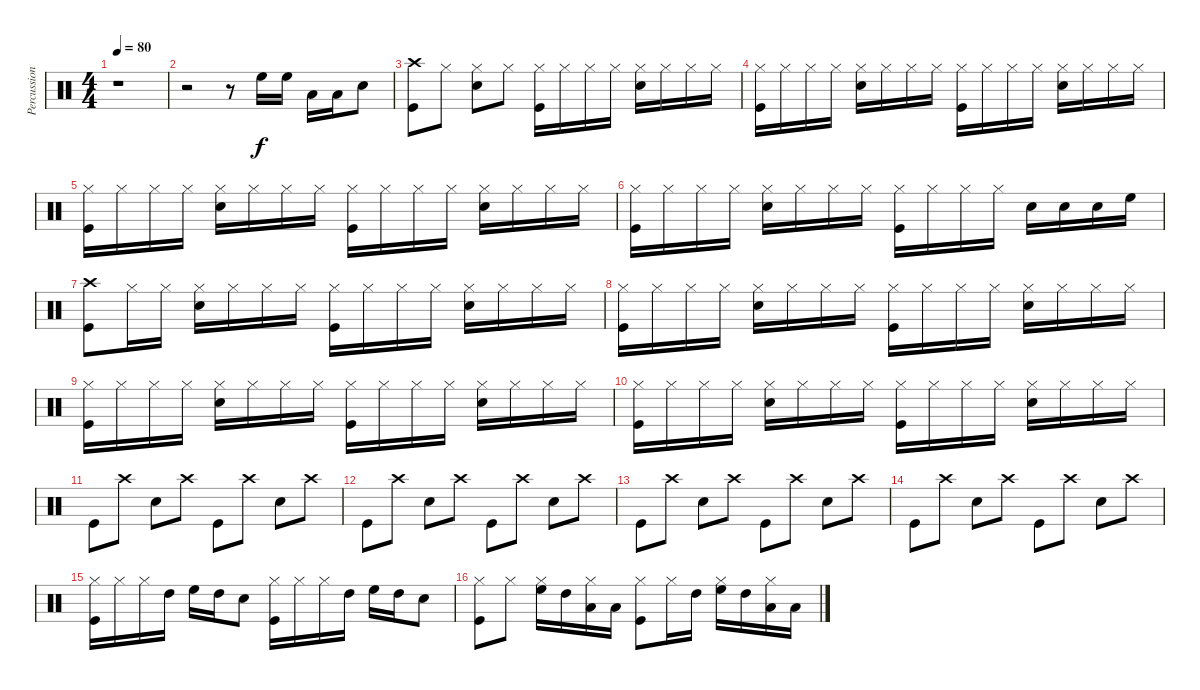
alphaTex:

\track ("Percussion" "Percussion") {instrument percussion}
\staff {score}
\articulation defaults
\ts (4 4)
\tempo 80
\clef neutral
\ks c
r.1{dy f} |
r.2 r.8 "High Floor Tom (hit)".16 "High Floor Tom (hit)".16 "Low Tom (hit)".16 "Low Tom (hit)".16 "Snare (hit) 2".8 |
("Crash high (hit)" "Kick (hit)").8 "Hi-Hat (closed)".8 ("Hi-Hat (closed)" "Snare (hit) 2").8 "Hi-Hat (closed)".8 ("Hi-Hat (closed)" "Kick (hit)").16 "Hi-Hat (closed)".16 "Hi-Hat (closed)".16 "Hi-Hat (closed)".16 ("Hi-Hat (closed)" "Snare (hit) 2").16 "Hi-Hat (closed)".16 "Hi-Hat (closed)".16 "Hi-Hat (closed)".16 |
("Hi-Hat (closed)" "Kick (hit)").16 "Hi-Hat (closed)".16 "Hi-Hat (closed)".16 "Hi-Hat (closed)".16 ("Hi-Hat (closed)" "Snare (hit) 2").16 "Hi-Hat (closed)".16 "Hi-Hat (closed)".16 "Hi-Hat (closed)".16 ("Hi-Hat (closed)" "Kick (hit)").16 "Hi-Hat (closed)".16 "Hi-Hat (closed)".16 "Hi-Hat (closed)".16 ("Hi-Hat (closed)" "Snare (hit) 2").16 "Hi-Hat (closed)".16 "Hi-Hat (closed)".16 "Hi-Hat (closed)".16 |
("Hi-Hat (closed)" "Kick (hit)").16 "Hi-Hat (closed)".16 "Hi-Hat (closed)".16 "Hi-Hat (closed)".16 ("Hi-Hat (closed)" "Snare (hit) 2").16 "Hi-Hat (closed)".16 "Hi-Hat (closed)".16 "Hi-Hat (closed)".16 ("Hi-Hat (closed)" "Kick (hit)").16 "Hi-Hat (closed)".16 "Hi-Hat (closed)".16 "Hi-Hat (closed)".16 ("Hi-Hat (closed)" "Snare (hit) 2").16 "Hi-Hat (closed)".16 "Hi-Hat (closed)".16 "Hi-Hat (closed)".16 |
("Hi-Hat (closed)" "Kick (hit)").16 "Hi-Hat (closed)".16 "Hi-Hat (closed)".16 "Hi-Hat (closed)".16 ("Hi-Hat (closed)" "Snare (hit) 2").16 "Hi-Hat (closed)".16 "Hi-Hat (closed)".16 "Hi-Hat (closed)".16 ("Hi-Hat (closed)" "Kick (hit)").16 "Hi-Hat (closed)".16 "Hi-Hat (closed)".16 "Hi-Hat (closed)".16 "Snare (hit) 2".16 "Snare (hit) 2".16 "Snare (hit) 2".16 "High Floor Tom (hit)".16 |
("Crash high (hit)" "Kick (hit)").8 "Hi-Hat (closed)".16 "Hi-Hat (closed)".16 ("Hi-Hat (closed)" "Snare (hit) 2").16 "Hi-Hat (closed)".16 "Hi-Hat (closed)".16 "Hi-Hat (closed)".16 ("Hi-Hat (closed)" "Kick (hit)").16 "Hi-Hat (closed)".16 "Hi-Hat (closed)".16 "Hi-Hat (closed)".16 ("Hi-Hat (closed)" "Snare (hit) 2").16 "Hi-Hat (closed)".16 "Hi-Hat (closed)".16 "Hi-Hat (closed)".16 |
("Hi-Hat (closed)" "Kick (hit)").16 "Hi-Hat (closed)".16 "Hi-Hat (closed)".16 "Hi-Hat (closed)".16 ("Hi-Hat (closed)" "Snare (hit) 2").16 "Hi-Hat (closed)".16 "Hi-Hat (closed)".16 "Hi-Hat (closed)".16 ("Hi-Hat (closed)" "Kick (hit)").16 "Hi-Hat (closed)".16 "Hi-Hat (closed)".16 "Hi-Hat (closed)".16 ("Hi-Hat (closed)" "Snare (hit) 2").16 "Hi-Hat (closed)".16 "Hi-Hat (closed)".16 "Hi-Hat (closed)".16 |
("Hi-Hat (closed)" "Kick (hit)").16 "Hi-Hat (closed)".16 "Hi-Hat (closed)".16 "Hi-Hat (closed)".16 ("Hi-Hat (closed)" "Snare (hit) 2").16 "Hi-Hat (closed)".16 "Hi-Hat (closed)".16 "Hi-Hat (closed)".16 ("Hi-Hat (closed)" "Kick (hit)").16 "Hi-Hat (closed)".16 "Hi-Hat (closed)".16 "Hi-Hat (closed)".16 ("Hi-Hat (closed)" "Snare (hit) 2").16 "Hi-Hat (closed)".16 "Hi-Hat (closed)".16 "Hi-Hat (closed)".16 |
("Hi-Hat (closed)" "Kick (hit)").16 "Hi-Hat (closed)".16 "Hi-Hat (closed)".16 "Hi-Hat (closed)".16 ("Hi-Hat (closed)" "Snare (hit) 2").16 "Hi-Hat (closed)".16 "Hi-Hat (closed)".16 "Hi-Hat (closed)".16 ("Hi-Hat (closed)" "Kick (hit)").16 "Hi-Hat (closed)".16 "Hi-Hat (closed)".16 "Hi-Hat (closed)".16 ("Hi-Hat (closed)" "Snare (hit) 2").16 "Hi-Hat (closed)".16 "Hi-Hat (closed)".16 "Hi-Hat (closed)".16 |
"Kick (hit)".8 "Crash high (hit)".8 "Snare (hit) 2".8 "Crash high (hit)".8 "Kick (hit)".8 "Crash high (hit)".8 "Snare (hit) 2".8 "Crash high (hit)".8 |
"Kick (hit)".8 "Crash high (hit)".8 "Snare (hit) 2".8 "Crash high (hit)".8 "Kick (hit)".8 "Crash high (hit)".8 "Snare (hit) 2".8 "Crash high (hit)".8 |
"Kick (hit)".8 "Crash high (hit)".8 "Snare (hit) 2".8 "Crash high (hit)".8 "Kick (hit)".8 "Crash high (hit)".8 "Snare (hit) 2".8 "Crash high (hit)".8 |
"Kick (hit)".8 "Crash high (hit)".8 "Snare (hit) 2".8 "Crash high (hit)".8 "Kick (hit)".8 "Crash high (hit)".8 "Snare (hit) 2".8 "Crash high (hit)".8 |
("Hi-Hat (closed)" "Kick (hit)").16 "Hi-Hat (closed)".16 "Hi-Hat (closed)".16 "High Tom (hit)".16 "High Floor Tom (hit)".16 "High Tom (hit)".16 "Snare (hit) 2".8 ("Hi-Hat (closed)" "Kick (hit)").16 "Hi-Hat (closed)".16 "Hi-Hat (closed)".16 "High Tom (hit)".16 "High Floor Tom (hit)".16 "High Tom (hit)".16 "Snare (hit) 2".8 |
("Hi-Hat (closed)" "Kick (hit)").8 "Hi-Hat (closed)".8 ("Hi-Hat (closed)" "High Floor Tom (hit)").16 "High Tom (hit)".16 ("Hi-Hat (closed)" "Low Tom (hit)").16 "Low Tom (hit)".16 ("Hi-Hat (closed)" "Kick (hit)").8 "Hi-Hat (closed)".16 "High Tom (hit)".16 ("Hi-Hat (closed)" "High Floor Tom (hit)").16 "High Tom (hit)".16 ("Hi-Hat (closed)" "Low Tom (hit)").16 "Low Tom (hit)".16
